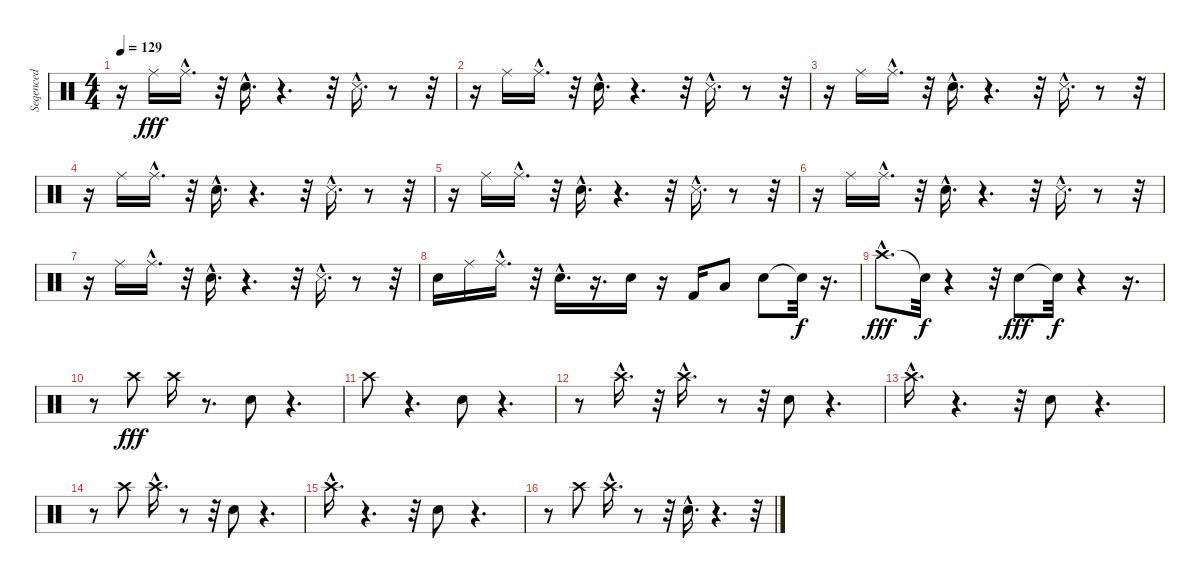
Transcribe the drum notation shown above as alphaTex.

\track (" Seqenced by Juri D." " Seqenced ") {instrument percussion}
\staff {score}
\articulation defaults
\ts (4 4)
\tempo 129
\clef neutral
\ks c
r.16{dy fff} "Ride (middle)".16 "Ride (middle)"{hac}.16{d} r.32 "Electric Snare (hit)"{hac}.16{d} r.4{d} r.32 "Snare (side stick) 3"{hac}.16{d} r.8 r.32 |
r.16 "Ride (middle)".16 "Ride (middle)"{hac}.16{d} r.32 "Electric Snare (hit)"{hac}.16{d} r.4{d} r.32 "Snare (side stick) 3"{hac}.16{d} r.8 r.32 |
r.16 "Ride (middle)".16 "Ride (middle)"{hac}.16{d} r.32 "Electric Snare (hit)"{hac}.16{d} r.4{d} r.32 "Snare (side stick) 3"{hac}.16{d} r.8 r.32 |
r.16 "Ride (middle)".16 "Ride (middle)"{hac}.16{d} r.32 "Electric Snare (hit)"{hac}.16{d} r.4{d} r.32 "Snare (side stick) 3"{hac}.16{d} r.8 r.32 |
r.16 "Ride (middle)".16 "Ride (middle)"{hac}.16{d} r.32 "Electric Snare (hit)"{hac}.16{d} r.4{d} r.32 "Snare (side stick) 3"{hac}.16{d} r.8 r.32 |
r.16 "Ride (middle)".16 "Ride (middle)"{hac}.16{d} r.32 "Electric Snare (hit)"{hac}.16{d} r.4{d} r.32 "Snare (side stick) 3"{hac}.16{d} r.8 r.32 |
r.16 "Ride (middle)".16 "Ride (middle)"{hac}.16{d} r.32 "Electric Snare (hit)"{hac}.16{d} r.4{d} r.32 "Snare (side stick) 3"{hac}.16{d} r.8 r.32 |
"Snare (hit) 2".16 "Ride (middle)".16 "Ride (middle)"{hac}.16{d} r.32 "Snare (hit) 2"{hac}.16{d} r.16{d} "Snare (hit) 2".16 r.16 "Kick (hit) 2".16 "Low Floor Tom (hit)".8 "Electric Snare (hit)".8 "Snare (hit)"{t}.32{dy f} r.16{d} |
"Crash high (hit)"{hac}.8{d dy fff} "Snare (hit)"{t}.32{dy f} r.4 r.32 "Snare (hit) 2".8{dy fff} "Snare (hit)"{t}.32{dy f} r.4 r.16{d} |
r.8 "Crash high (hit)".8{dy fff} "Crash high (hit)".16 r.8{d} "Snare (hit) 2".8 r.4{d} |
"Crash high (hit)".8 r.4{d} "Snare (hit) 2".8 r.4{d} |
r.8 "Crash high (hit)"{hac}.16{d} r.32 "Crash high (hit)"{hac}.16{d} r.8 r.32 "Snare (hit) 2".8 r.4{d} |
"Crash high (hit)"{hac}.16{d} r.4{d} r.32 "Snare (hit) 2".8 r.4{d} |
r.8 "Crash high (hit)".8 "Crash high (hit)"{hac}.16{d} r.8 r.32 "Snare (hit) 2".8 r.4{d} |
"Crash high (hit)"{hac}.16{d} r.4{d} r.32 "Snare (hit) 2".8 r.4{d} |
r.8 "Crash high (hit)".8 "Crash high (hit)"{hac}.16{d} r.8 r.32 "Snare (hit) 2"{hac}.16{d} r.4{d} r.32
